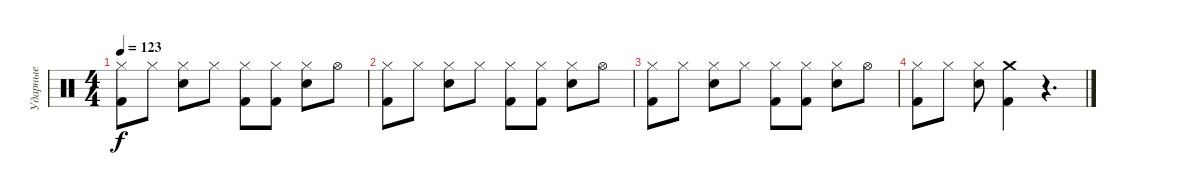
\track ("Ударные" "Ударные") {instrument percussion}
\staff {score}
\articulation defaults
\ts (4 4)
\tempo 123
\clef neutral
\ks c
("Hi-Hat (closed)" "Kick (hit) 2").8{dy f} "Hi-Hat (closed)".8 ("Hi-Hat (closed)" "Electric Snare (hit)").8 "Hi-Hat (closed)".8 ("Hi-Hat (closed)" "Kick (hit) 2").8 ("Hi-Hat (closed)" "Kick (hit) 2").8 ("Hi-Hat (closed)" "Electric Snare (hit)").8 "Hi-Hat (open)".8 |
("Hi-Hat (closed)" "Kick (hit) 2").8 "Hi-Hat (closed)".8 ("Hi-Hat (closed)" "Electric Snare (hit)").8 "Hi-Hat (closed)".8 ("Hi-Hat (closed)" "Kick (hit) 2").8 ("Hi-Hat (closed)" "Kick (hit) 2").8 ("Hi-Hat (closed)" "Electric Snare (hit)").8 "Hi-Hat (open)".8 |
("Hi-Hat (closed)" "Kick (hit) 2").8 "Hi-Hat (closed)".8 ("Hi-Hat (closed)" "Electric Snare (hit)").8 "Hi-Hat (closed)".8 ("Hi-Hat (closed)" "Kick (hit) 2").8 ("Hi-Hat (closed)" "Kick (hit) 2").8 ("Hi-Hat (closed)" "Electric Snare (hit)").8 "Hi-Hat (open)".8 |
("Hi-Hat (closed)" "Kick (hit) 2").8 "Hi-Hat (closed)".8 ("Hi-Hat (closed)" "Electric Snare (hit)").8 ("Crash medium (hit)" "Kick (hit) 2").4 r.4{d}
